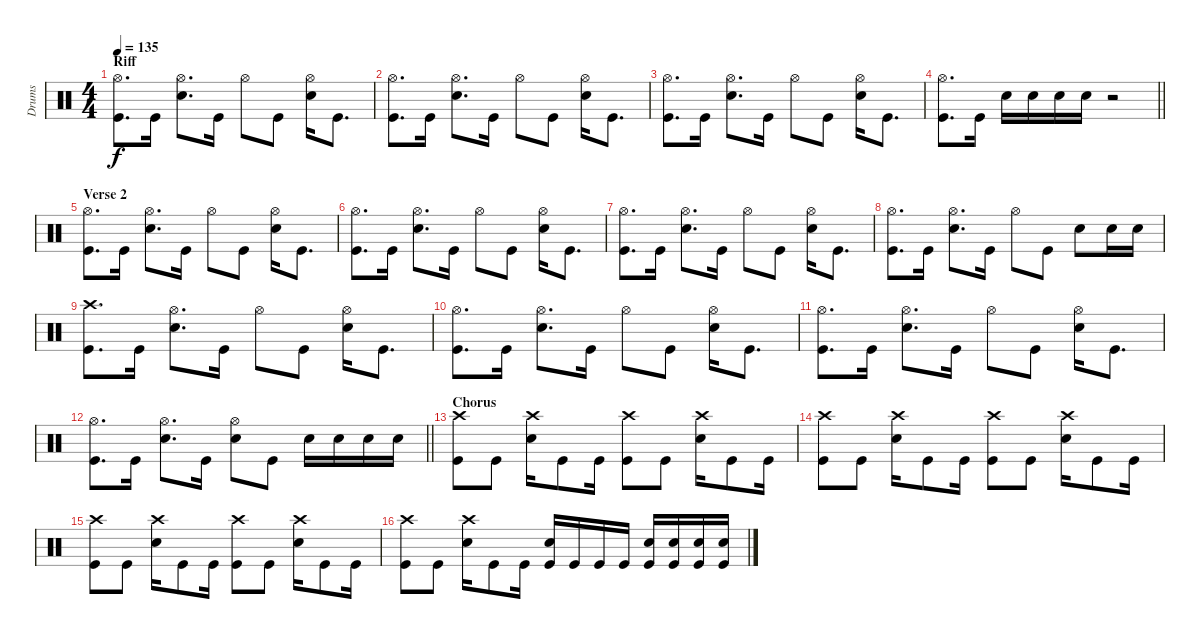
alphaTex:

\track ("Drums" "Drums") {instrument percussion}
\staff {score}
\articulation defaults
\ts (4 4)
\section ("" "Riff")
\tempo 135
\clef neutral
\ks c
("Kick (hit)" "Hi-Hat (open)").8{d dy f} "Kick (hit)".16 ("Snare (hit) 2" "Hi-Hat (open)").8{d} "Kick (hit)".16 "Hi-Hat (open)".8 "Kick (hit)".8 ("Snare (hit) 2" "Hi-Hat (open)").16 "Kick (hit)".8{d} |
("Kick (hit)" "Hi-Hat (open)").8{d} "Kick (hit)".16 ("Snare (hit) 2" "Hi-Hat (open)").8{d} "Kick (hit)".16 "Hi-Hat (open)".8 "Kick (hit)".8 ("Snare (hit) 2" "Hi-Hat (open)").16 "Kick (hit)".8{d} |
("Kick (hit)" "Hi-Hat (open)").8{d} "Kick (hit)".16 ("Snare (hit) 2" "Hi-Hat (open)").8{d} "Kick (hit)".16 "Hi-Hat (open)".8 "Kick (hit)".8 ("Snare (hit) 2" "Hi-Hat (open)").16 "Kick (hit)".8{d} |
\barLineRight lightlight
("Kick (hit)" "Hi-Hat (open)").8{d} "Kick (hit)".16 "Snare (hit) 2".16 "Snare (hit) 2".16 "Snare (hit) 2".16 "Snare (hit) 2".16 r.2 |
\section ("" "Verse 2")
("Kick (hit)" "Hi-Hat (open)").8{d} "Kick (hit)".16 ("Snare (hit) 2" "Hi-Hat (open)").8{d} "Kick (hit)".16 "Hi-Hat (open)".8 "Kick (hit)".8 ("Snare (hit) 2" "Hi-Hat (open)").16 "Kick (hit)".8{d} |
("Kick (hit)" "Hi-Hat (open)").8{d} "Kick (hit)".16 ("Snare (hit) 2" "Hi-Hat (open)").8{d} "Kick (hit)".16 "Hi-Hat (open)".8 "Kick (hit)".8 ("Snare (hit) 2" "Hi-Hat (open)").16 "Kick (hit)".8{d} |
("Kick (hit)" "Hi-Hat (open)").8{d} "Kick (hit)".16 ("Snare (hit) 2" "Hi-Hat (open)").8{d} "Kick (hit)".16 "Hi-Hat (open)".8 "Kick (hit)".8 ("Snare (hit) 2" "Hi-Hat (open)").16 "Kick (hit)".8{d} |
("Kick (hit)" "Hi-Hat (open)").8{d} "Kick (hit)".16 ("Snare (hit) 2" "Hi-Hat (open)").8{d} "Kick (hit)".16 "Hi-Hat (open)".8 "Kick (hit)".8 "Snare (hit) 2".8 "Snare (hit) 2".16 "Snare (hit) 2".16 |
("Kick (hit)" "Crash high (hit)").8{d} "Kick (hit)".16 ("Snare (hit) 2" "Hi-Hat (open)").8{d} "Kick (hit)".16 "Hi-Hat (open)".8 "Kick (hit)".8 ("Snare (hit) 2" "Hi-Hat (open)").16 "Kick (hit)".8{d} |
("Kick (hit)" "Hi-Hat (open)").8{d} "Kick (hit)".16 ("Snare (hit) 2" "Hi-Hat (open)").8{d} "Kick (hit)".16 "Hi-Hat (open)".8 "Kick (hit)".8 ("Snare (hit) 2" "Hi-Hat (open)").16 "Kick (hit)".8{d} |
("Kick (hit)" "Hi-Hat (open)").8{d} "Kick (hit)".16 ("Snare (hit) 2" "Hi-Hat (open)").8{d} "Kick (hit)".16 "Hi-Hat (open)".8 "Kick (hit)".8 ("Snare (hit) 2" "Hi-Hat (open)").16 "Kick (hit)".8{d} |
\barLineRight lightlight
("Kick (hit)" "Hi-Hat (open)").8{d} "Kick (hit)".16 ("Snare (hit) 2" "Hi-Hat (open)").8{d} "Kick (hit)".16 ("Hi-Hat (open)" "Snare (hit) 2").8 "Kick (hit)".8 "Snare (hit) 2".16 "Snare (hit) 2".16 "Snare (hit) 2".16 "Snare (hit) 2".16 |
\section ("" "Chorus")
("Kick (hit)" "Crash high (hit)").8 "Kick (hit)".8 ("Snare (hit) 2" "Crash high (hit)").16 "Kick (hit)".8 "Kick (hit)".16 ("Kick (hit)" "Crash high (hit)").8 "Kick (hit)".8 ("Snare (hit) 2" "Crash high (hit)").16 "Kick (hit)".8 "Kick (hit)".16 |
("Kick (hit)" "Crash high (hit)").8 "Kick (hit)".8 ("Snare (hit) 2" "Crash high (hit)").16 "Kick (hit)".8 "Kick (hit)".16 ("Kick (hit)" "Crash high (hit)").8 "Kick (hit)".8 ("Snare (hit) 2" "Crash high (hit)").16 "Kick (hit)".8 "Kick (hit)".16 |
("Kick (hit)" "Crash high (hit)").8 "Kick (hit)".8 ("Snare (hit) 2" "Crash high (hit)").16 "Kick (hit)".8 "Kick (hit)".16 ("Kick (hit)" "Crash high (hit)").8 "Kick (hit)".8 ("Snare (hit) 2" "Crash high (hit)").16 "Kick (hit)".8 "Kick (hit)".16 |
("Kick (hit)" "Crash high (hit)").8 "Kick (hit)".8 ("Snare (hit) 2" "Crash high (hit)").16 "Kick (hit)".8 "Kick (hit)".16 ("Kick (hit)" "Snare (hit) 2").16 "Kick (hit)".16 "Kick (hit)".16 "Kick (hit)".16 ("Kick (hit)" "Snare (hit) 2").16 ("Kick (hit)" "Snare (hit) 2").16 ("Kick (hit)" "Snare (hit) 2").16 ("Kick (hit)" "Snare (hit) 2").16
